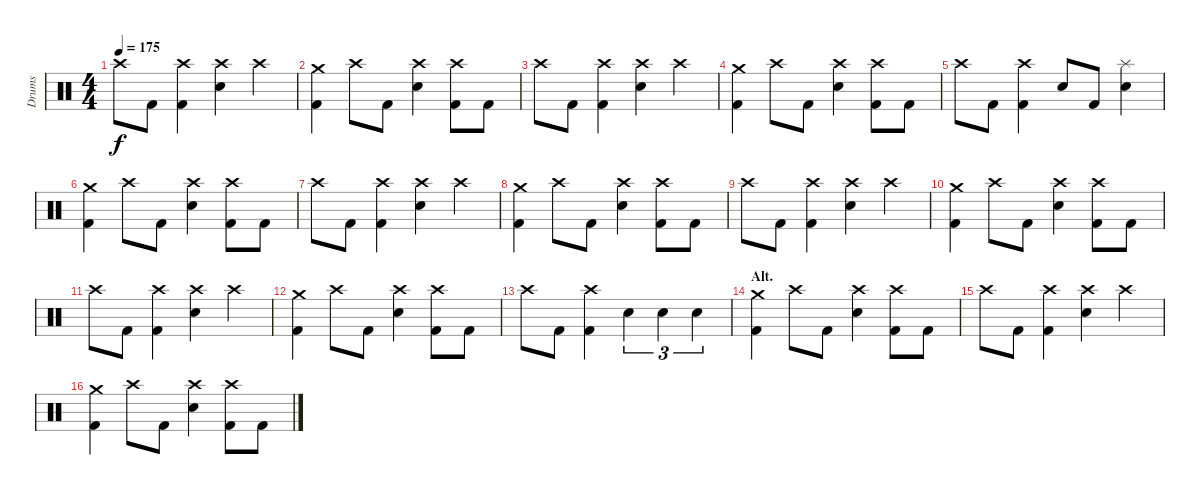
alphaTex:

\track ("Drums" "Drums") {instrument percussion}
\staff {score}
\articulation defaults
\ts (4 4)
\tempo 175
\clef neutral
\ks c "Crash high (hit)".8{dy f} "Kick (hit) 2".8
("Crash high (hit)" "Kick (hit) 2").4 ("Crash high (hit)" "Electric Snare (hit)").4 "Crash high (hit)".4 |
("Crash medium (hit)" "Kick (hit) 2").4 "Crash high (hit)".8 "Kick (hit) 2".8 ("Crash high (hit)" "Electric Snare (hit)").4 ("Crash high (hit)" "Kick (hit) 2").8 "Kick (hit) 2".8 |
"Crash high (hit)".8 "Kick (hit) 2".8 ("Crash high (hit)" "Kick (hit) 2").4 ("Crash high (hit)" "Electric Snare (hit)").4 "Crash high (hit)".4 |
("Crash medium (hit)" "Kick (hit) 2").4 "Crash high (hit)".8 "Kick (hit) 2".8 ("Crash high (hit)" "Electric Snare (hit)").4 ("Crash high (hit)" "Kick (hit) 2").8 "Kick (hit) 2".8 |
"Crash high (hit)".8 "Kick (hit) 2".8 ("Crash high (hit)" "Kick (hit) 2").4 "Electric Snare (hit)".8 "Kick (hit) 2".8 ("Splash (hit)" "Electric Snare (hit)").4 |
("Crash medium (hit)" "Kick (hit) 2").4 "Crash high (hit)".8 "Kick (hit) 2".8 ("Crash high (hit)" "Electric Snare (hit)").4 ("Crash high (hit)" "Kick (hit) 2").8 "Kick (hit) 2".8 |
"Crash high (hit)".8 "Kick (hit) 2".8 ("Crash high (hit)" "Kick (hit) 2").4 ("Crash high (hit)" "Electric Snare (hit)").4 "Crash high (hit)".4 |
("Crash medium (hit)" "Kick (hit) 2").4 "Crash high (hit)".8 "Kick (hit) 2".8 ("Crash high (hit)" "Electric Snare (hit)").4 ("Crash high (hit)" "Kick (hit) 2").8 "Kick (hit) 2".8 |
"Crash high (hit)".8 "Kick (hit) 2".8 ("Crash high (hit)" "Kick (hit) 2").4 ("Crash high (hit)" "Electric Snare (hit)").4 "Crash high (hit)".4 |
("Crash medium (hit)" "Kick (hit) 2").4 "Crash high (hit)".8 "Kick (hit) 2".8 ("Crash high (hit)" "Electric Snare (hit)").4 ("Crash high (hit)" "Kick (hit) 2").8 "Kick (hit) 2".8 |
"Crash high (hit)".8 "Kick (hit) 2".8 ("Crash high (hit)" "Kick (hit) 2").4 ("Crash high (hit)" "Electric Snare (hit)").4 "Crash high (hit)".4 |
("Crash medium (hit)" "Kick (hit) 2").4 "Crash high (hit)".8 "Kick (hit) 2".8 ("Crash high (hit)" "Electric Snare (hit)").4 ("Crash high (hit)" "Kick (hit) 2").8 "Kick (hit) 2".8 |
"Crash high (hit)".8 "Kick (hit) 2".8 ("Crash high (hit)" "Kick (hit) 2").4 "Electric Snare (hit)".4{tu (3 2)} "Electric Snare (hit)".4{tu (3 2)} "Electric Snare (hit)".4{tu (3 2)} |
\section ("" "Alt.")
("Crash medium (hit)" "Kick (hit) 2").4 "Crash high (hit)".8 "Kick (hit) 2".8 ("Crash high (hit)" "Electric Snare (hit)").4 ("Crash high (hit)" "Kick (hit) 2").8 "Kick (hit) 2".8 |
"Crash high (hit)".8 "Kick (hit) 2".8 ("Crash high (hit)" "Kick (hit) 2").4 ("Crash high (hit)" "Electric Snare (hit)").4 "Crash high (hit)".4 |
("Crash medium (hit)" "Kick (hit) 2").4 "Crash high (hit)".8 "Kick (hit) 2".8 ("Crash high (hit)" "Electric Snare (hit)").4 ("Crash high (hit)" "Kick (hit) 2").8 "Kick (hit) 2".8
